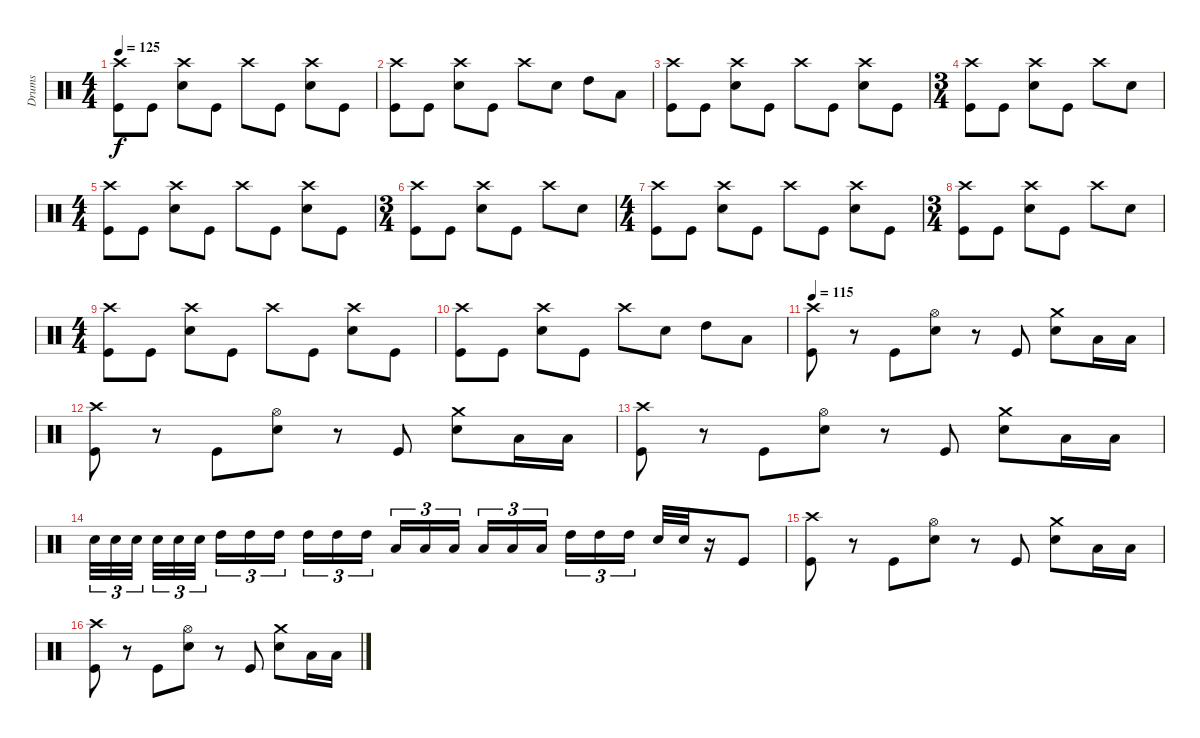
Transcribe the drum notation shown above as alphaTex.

\track ("Drums" "Drums") {instrument percussion}
\staff {score}
\articulation defaults
\ts (4 4)
\tempo 125
\clef neutral
\ks c
("Kick (hit)" "Crash high (hit)").8{dy f} "Kick (hit)".8 ("Snare (hit) 2" "Crash high (hit)").8 "Kick (hit)".8 "Crash high (hit)".8 "Kick (hit)".8 ("Snare (hit) 2" "Crash high (hit)").8 "Kick (hit)".8 |
("Kick (hit)" "Crash high (hit)").8 "Kick (hit)".8 ("Snare (hit) 2" "Crash high (hit)").8 "Kick (hit)".8 "Crash high (hit)".8 "Snare (hit) 2".8 "High Tom (hit)".8 "Low Tom (hit)".8 |
("Kick (hit)" "Crash high (hit)").8 "Kick (hit)".8 ("Snare (hit) 2" "Crash high (hit)").8 "Kick (hit)".8 "Crash high (hit)".8 "Kick (hit)".8 ("Snare (hit) 2" "Crash high (hit)").8 "Kick (hit)".8 |
\ts (3 4)
("Kick (hit)" "Crash high (hit)").8 "Kick (hit)".8 ("Snare (hit) 2" "Crash high (hit)").8 "Kick (hit)".8 "Crash high (hit)".8 "Snare (hit) 2".8 |
\ts (4 4)
("Kick (hit)" "Crash high (hit)").8 "Kick (hit)".8 ("Snare (hit) 2" "Crash high (hit)").8 "Kick (hit)".8 "Crash high (hit)".8 "Kick (hit)".8 ("Snare (hit) 2" "Crash high (hit)").8 "Kick (hit)".8 |
\ts (3 4)
("Kick (hit)" "Crash high (hit)").8 "Kick (hit)".8 ("Snare (hit) 2" "Crash high (hit)").8 "Kick (hit)".8 "Crash high (hit)".8 "Snare (hit) 2".8 |
\ts (4 4)
("Kick (hit)" "Crash high (hit)").8 "Kick (hit)".8 ("Snare (hit) 2" "Crash high (hit)").8 "Kick (hit)".8 "Crash high (hit)".8 "Kick (hit)".8 ("Snare (hit) 2" "Crash high (hit)").8 "Kick (hit)".8 |
\ts (3 4)
("Kick (hit)" "Crash high (hit)").8 "Kick (hit)".8 ("Snare (hit) 2" "Crash high (hit)").8 "Kick (hit)".8 "Crash high (hit)".8 "Snare (hit) 2".8 |
\ts (4 4)
("Kick (hit)" "Crash high (hit)").8 "Kick (hit)".8 ("Snare (hit) 2" "Crash high (hit)").8 "Kick (hit)".8 "Crash high (hit)".8 "Kick (hit)".8 ("Snare (hit) 2" "Crash high (hit)").8 "Kick (hit)".8 |
("Kick (hit)" "Crash high (hit)").8 "Kick (hit)".8 ("Snare (hit) 2" "Crash high (hit)").8 "Kick (hit)".8 "Crash high (hit)".8 "Snare (hit) 2".8 "High Tom (hit)".8 "Low Tom (hit)".8 |
\tempo 115
("Kick (hit)" "Crash high (hit)").8 r.8 "Kick (hit)".8 ("Snare (hit) 2" "Hi-Hat (open)").8 r.8 "Kick (hit)".8 ("Snare (hit) 2" "Crash medium (hit)").8 "Low Tom (hit)".16 "Low Tom (hit)".16 |
("Kick (hit)" "Crash high (hit)").8 r.8 "Kick (hit)".8 ("Snare (hit) 2" "Hi-Hat (open)").8 r.8 "Kick (hit)".8 ("Snare (hit) 2" "Crash medium (hit)").8 "Low Tom (hit)".16 "Low Tom (hit)".16 |
("Kick (hit)" "Crash high (hit)").8 r.8 "Kick (hit)".8 ("Snare (hit) 2" "Hi-Hat (open)").8 r.8 "Kick (hit)".8 ("Snare (hit) 2" "Crash medium (hit)").8 "Low Tom (hit)".16 "Low Tom (hit)".16 |
"Snare (hit) 2".32{tu (3 2)} "Snare (hit) 2".32{tu (3 2)} "Snare (hit) 2".32{tu (3 2)} "Snare (hit) 2".32{tu (3 2)} "Snare (hit) 2".32{tu (3 2)} "Snare (hit) 2".32{tu (3 2)} "High Tom (hit)".16{tu (3 2)} "High Tom (hit)".16{tu (3 2)} "High Tom (hit)".16{tu (3 2)} "High Tom (hit)".16{tu (3 2)} "High Tom (hit)".16{tu (3 2)} "High Tom (hit)".16{tu (3 2)} "Low Tom (hit)".16{tu (3 2)} "Low Tom (hit)".16{tu (3 2)} "Low Tom (hit)".16{tu (3 2)} "Low Tom (hit)".16{tu (3 2)} "Low Tom (hit)".16{tu (3 2)} "Low Tom (hit)".16{tu (3 2)} "High Tom (hit)".16{tu (3 2)} "High Tom (hit)".16{tu (3 2)} "High Tom (hit)".16{tu (3 2)} "Snare (hit) 2".32 "Snare (hit) 2".32 r.16 "Kick (hit)".8 |
("Kick (hit)" "Crash high (hit)").8 r.8 "Kick (hit)".8 ("Snare (hit) 2" "Hi-Hat (open)").8 r.8 "Kick (hit)".8 ("Snare (hit) 2" "Crash medium (hit)").8 "Low Tom (hit)".16 "Low Tom (hit)".16 |
("Kick (hit)" "Crash high (hit)").8 r.8 "Kick (hit)".8 ("Snare (hit) 2" "Hi-Hat (open)").8 r.8 "Kick (hit)".8 ("Snare (hit) 2" "Crash medium (hit)").8 "Low Tom (hit)".16 "Low Tom (hit)".16
